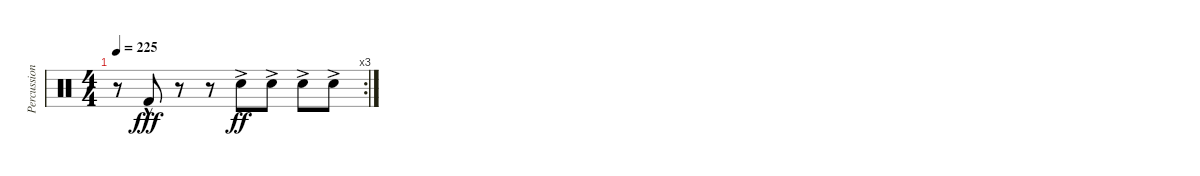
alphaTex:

\track ("Percussion" "Percussion") {instrument percussion}
\staff {score}
\articulation defaults
\rc 3
\ts (4 4)
\tempo 225
\clef neutral
\ks c
r.8{dy ff} "Kick (hit) 2"{hac}.8{dy fff} r.8 r.8 "Snare (hit) 2"{ac}.8{dy ff} "Snare (hit) 2"{ac}.8 "Snare (hit) 2"{ac}.8 "Snare (hit) 2"{ac}.8
